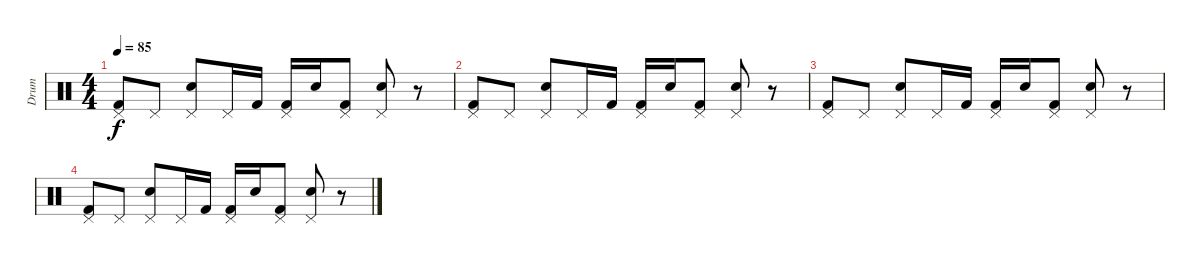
\track ("Drum" "Drum") {instrument percussion}
\staff {score}
\articulation defaults
\ts (4 4)
\tempo 85
\clef neutral
\ks c
("Pedal Hi-Hat (hit)" "Kick (hit) 2").8{dy f} "Pedal Hi-Hat (hit)".8 ("Pedal Hi-Hat (hit)" "Electric Snare (hit)").8 "Pedal Hi-Hat (hit)".16 "Kick (hit) 2".16 ("Pedal Hi-Hat (hit)" "Kick (hit) 2").16 "Electric Snare (hit)".16 ("Pedal Hi-Hat (hit)" "Kick (hit) 2").8 ("Pedal Hi-Hat (hit)" "Electric Snare (hit)").8 r.8 |
("Pedal Hi-Hat (hit)" "Kick (hit) 2").8 "Pedal Hi-Hat (hit)".8 ("Pedal Hi-Hat (hit)" "Electric Snare (hit)").8 "Pedal Hi-Hat (hit)".16 "Kick (hit) 2".16 ("Pedal Hi-Hat (hit)" "Kick (hit) 2").16 "Electric Snare (hit)".16 ("Pedal Hi-Hat (hit)" "Kick (hit) 2").8 ("Pedal Hi-Hat (hit)" "Electric Snare (hit)").8 r.8 |
("Pedal Hi-Hat (hit)" "Kick (hit) 2").8 "Pedal Hi-Hat (hit)".8 ("Pedal Hi-Hat (hit)" "Electric Snare (hit)").8 "Pedal Hi-Hat (hit)".16 "Kick (hit) 2".16 ("Pedal Hi-Hat (hit)" "Kick (hit) 2").16 "Electric Snare (hit)".16 ("Pedal Hi-Hat (hit)" "Kick (hit) 2").8 ("Pedal Hi-Hat (hit)" "Electric Snare (hit)").8 r.8 |
("Pedal Hi-Hat (hit)" "Kick (hit) 2").8 "Pedal Hi-Hat (hit)".8 ("Pedal Hi-Hat (hit)" "Electric Snare (hit)").8 "Pedal Hi-Hat (hit)".16 "Kick (hit) 2".16 ("Pedal Hi-Hat (hit)" "Kick (hit) 2").16 "Electric Snare (hit)".16 ("Pedal Hi-Hat (hit)" "Kick (hit) 2").8 ("Pedal Hi-Hat (hit)" "Electric Snare (hit)").8 r.8
